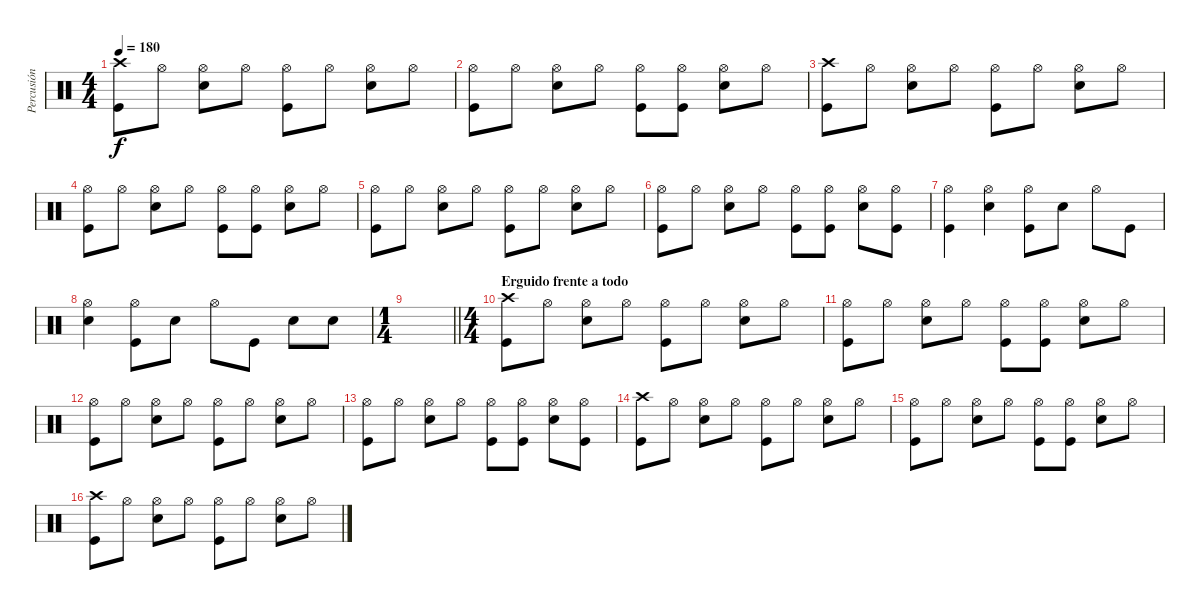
\track ("Percusión" "Percusión") {instrument percussion}
\staff {score}
\articulation defaults
\ts (4 4)
\tempo 180
\clef neutral
\ks c
("Crash high (hit)" "Kick (hit)").8{dy f} "Hi-Hat (open)".8 ("Hi-Hat (open)" "Electric Snare (hit)").8 "Hi-Hat (open)".8 ("Hi-Hat (open)" "Kick (hit)").8 "Hi-Hat (open)".8 ("Hi-Hat (open)" "Electric Snare (hit)").8 "Hi-Hat (open)".8 |
("Hi-Hat (open)" "Kick (hit)").8 "Hi-Hat (open)".8 ("Hi-Hat (open)" "Electric Snare (hit)").8 "Hi-Hat (open)".8 ("Hi-Hat (open)" "Kick (hit)").8 ("Hi-Hat (open)" "Kick (hit)").8 ("Hi-Hat (open)" "Electric Snare (hit)").8 "Hi-Hat (open)".8 |
("Crash high (hit)" "Kick (hit)").8 "Hi-Hat (open)".8 ("Hi-Hat (open)" "Electric Snare (hit)").8 "Hi-Hat (open)".8 ("Hi-Hat (open)" "Kick (hit)").8 "Hi-Hat (open)".8 ("Hi-Hat (open)" "Electric Snare (hit)").8 "Hi-Hat (open)".8 |
("Hi-Hat (open)" "Kick (hit)").8 "Hi-Hat (open)".8 ("Hi-Hat (open)" "Electric Snare (hit)").8 "Hi-Hat (open)".8 ("Hi-Hat (open)" "Kick (hit)").8 ("Hi-Hat (open)" "Kick (hit)").8 ("Hi-Hat (open)" "Electric Snare (hit)").8 "Hi-Hat (open)".8 |
("Hi-Hat (open)" "Kick (hit)").8 "Hi-Hat (open)".8 ("Hi-Hat (open)" "Electric Snare (hit)").8 "Hi-Hat (open)".8 ("Hi-Hat (open)" "Kick (hit)").8 "Hi-Hat (open)".8 ("Hi-Hat (open)" "Electric Snare (hit)").8 "Hi-Hat (open)".8 |
("Hi-Hat (open)" "Kick (hit)").8 "Hi-Hat (open)".8 ("Hi-Hat (open)" "Electric Snare (hit)").8 "Hi-Hat (open)".8 ("Hi-Hat (open)" "Kick (hit)").8 ("Hi-Hat (open)" "Kick (hit)").8 ("Hi-Hat (open)" "Electric Snare (hit)").8 ("Hi-Hat (open)" "Kick (hit)").8 |
("Hi-Hat (open)" "Kick (hit)").4 ("Hi-Hat (open)" "Electric Snare (hit)").4 ("Hi-Hat (open)" "Kick (hit)").8 "Electric Snare (hit)".8 "Hi-Hat (open)".8 "Kick (hit)".8 |
("Hi-Hat (open)" "Electric Snare (hit)").4 ("Hi-Hat (open)" "Kick (hit)").8 "Electric Snare (hit)".8 "Hi-Hat (open)".8 "Kick (hit)".8 "Electric Snare (hit)".8 "Electric Snare (hit)".8 |
\ts (1 4)
\barLineRight lightlight
|
\ts (4 4)
\section ("" "Erguido frente a todo")
("Crash high (hit)" "Kick (hit)").8 "Hi-Hat (open)".8 ("Hi-Hat (open)" "Electric Snare (hit)").8 "Hi-Hat (open)".8 ("Hi-Hat (open)" "Kick (hit)").8 "Hi-Hat (open)".8 ("Hi-Hat (open)" "Electric Snare (hit)").8 "Hi-Hat (open)".8 |
("Hi-Hat (open)" "Kick (hit)").8 "Hi-Hat (open)".8 ("Hi-Hat (open)" "Electric Snare (hit)").8 "Hi-Hat (open)".8 ("Hi-Hat (open)" "Kick (hit)").8 ("Hi-Hat (open)" "Kick (hit)").8 ("Hi-Hat (open)" "Electric Snare (hit)").8 "Hi-Hat (open)".8 |
("Hi-Hat (open)" "Kick (hit)").8 "Hi-Hat (open)".8 ("Hi-Hat (open)" "Electric Snare (hit)").8 "Hi-Hat (open)".8 ("Hi-Hat (open)" "Kick (hit)").8 "Hi-Hat (open)".8 ("Hi-Hat (open)" "Electric Snare (hit)").8 "Hi-Hat (open)".8 |
("Hi-Hat (open)" "Kick (hit)").8 "Hi-Hat (open)".8 ("Hi-Hat (open)" "Electric Snare (hit)").8 "Hi-Hat (open)".8 ("Hi-Hat (open)" "Kick (hit)").8 ("Hi-Hat (open)" "Kick (hit)").8 ("Hi-Hat (open)" "Electric Snare (hit)").8 ("Hi-Hat (open)" "Kick (hit)").8 |
("Crash high (hit)" "Kick (hit)").8 "Hi-Hat (open)".8 ("Hi-Hat (open)" "Electric Snare (hit)").8 "Hi-Hat (open)".8 ("Hi-Hat (open)" "Kick (hit)").8 "Hi-Hat (open)".8 ("Hi-Hat (open)" "Electric Snare (hit)").8 "Hi-Hat (open)".8 |
("Hi-Hat (open)" "Kick (hit)").8 "Hi-Hat (open)".8 ("Hi-Hat (open)" "Electric Snare (hit)").8 "Hi-Hat (open)".8 ("Hi-Hat (open)" "Kick (hit)").8 ("Hi-Hat (open)" "Kick (hit)").8 ("Hi-Hat (open)" "Electric Snare (hit)").8 "Hi-Hat (open)".8 |
("Crash high (hit)" "Kick (hit)").8 "Hi-Hat (open)".8 ("Hi-Hat (open)" "Electric Snare (hit)").8 "Hi-Hat (open)".8 ("Hi-Hat (open)" "Kick (hit)").8 "Hi-Hat (open)".8 ("Hi-Hat (open)" "Electric Snare (hit)").8 "Hi-Hat (open)".8
